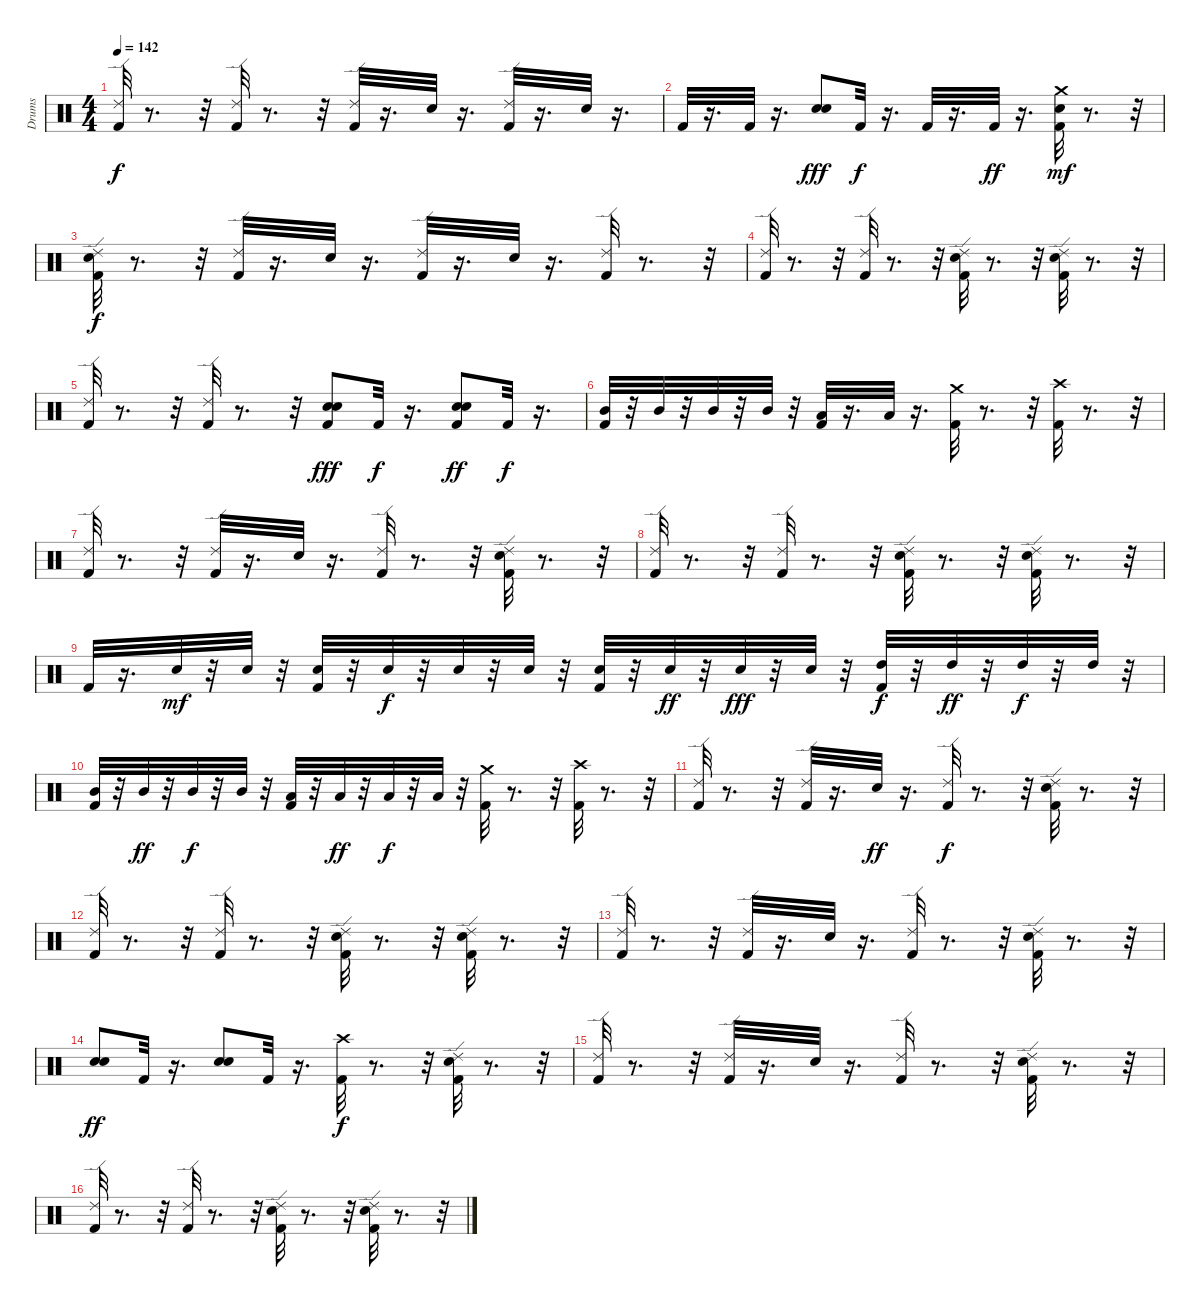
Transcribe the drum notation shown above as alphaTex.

\track ("Drums" "Drums") {instrument percussion}
\staff {score}
\articulation defaults
\ts (4 4)
\tempo 142
\clef neutral
\ks c
("Ride (edge) 2" "Kick (hit) 2").32{dy f} r.8{d} r.32 ("Ride (edge) 2" "Kick (hit) 2").32 r.8{d} r.32 ("Ride (edge) 2" "Kick (hit) 2").32 r.16{d} "Electric Snare (hit)".32 r.16{d} ("Ride (edge) 2" "Kick (hit) 2").32 r.16{d} "Electric Snare (hit)".32 r.16{d} |
"Kick (hit) 2".32 r.16{d} "Kick (hit) 2".32 r.16{d} ("Electric Snare (hit)" "Electric Snare (hit)").8{dy fff} "Kick (hit) 2".32{dy f} r.16{d} "Kick (hit) 2".32 r.16{d} "Kick (hit) 2".32{dy ff} r.16{d} ("Electric Snare (hit)" "Crash medium (hit)" "Kick (hit) 2").32{dy mf} r.8{d} r.32 |
("Ride (edge) 2" "Electric Snare (hit)" "Kick (hit) 2").32{dy f} r.8{d} r.32 ("Ride (edge) 2" "Kick (hit) 2").32 r.16{d} "Electric Snare (hit)".32 r.16{d} ("Ride (edge) 2" "Kick (hit) 2").32 r.16{d} "Electric Snare (hit)".32 r.16{d} ("Ride (edge) 2" "Kick (hit) 2").32 r.8{d} r.32 |
("Ride (edge) 2" "Kick (hit) 2").32 r.8{d} r.32 ("Ride (edge) 2" "Kick (hit) 2").32 r.8{d} r.32 ("Electric Snare (hit)" "Ride (edge) 2" "Kick (hit) 2").32 r.8{d} r.32 ("Electric Snare (hit)" "Ride (edge) 2" "Kick (hit) 2").32 r.8{d} r.32 |
("Ride (edge) 2" "Kick (hit) 2").32 r.8{d} r.32 ("Ride (edge) 2" "Kick (hit) 2").32 r.8{d} r.32 ("Electric Snare (hit)" "Electric Snare (hit)" "Kick (hit) 2").8{dy fff} "Kick (hit) 2".32{dy f} r.16{d} ("Electric Snare (hit)" "Electric Snare (hit)" "Kick (hit) 2").8{dy ff} "Kick (hit) 2".32{dy f} r.16{d} |
("Mid Tom (hit)" "Kick (hit) 2").32 r.32 "Mid Tom (hit)".32 r.32 "Mid Tom (hit)".32 r.32 "Mid Tom (hit)".32 r.32 ("Low Tom (hit)" "Kick (hit) 2").32 r.16{d} "Low Tom (hit)".32 r.16{d} ("Crash medium (hit)" "Kick (hit) 2").32 r.8{d} r.32 ("Crash high (hit)" "Kick (hit) 2").32 r.8{d} r.32 |
("Ride (edge) 2" "Kick (hit) 2").32 r.8{d} r.32 ("Ride (edge) 2" "Kick (hit) 2").32 r.16{d} "Electric Snare (hit)".32 r.16{d} ("Ride (edge) 2" "Kick (hit) 2").32 r.8{d} r.32 ("Ride (edge) 2" "Electric Snare (hit)" "Kick (hit) 2").32 r.8{d} r.32 |
("Ride (edge) 2" "Kick (hit) 2").32 r.8{d} r.32 ("Ride (edge) 2" "Kick (hit) 2").32 r.8{d} r.32 ("Ride (edge) 2" "Electric Snare (hit)" "Kick (hit) 2").32 r.8{d} r.32 ("Ride (edge) 2" "Electric Snare (hit)" "Kick (hit) 2").32 r.8{d} r.32 |
"Kick (hit) 2".32 r.16{d} "Electric Snare (hit)".32{dy mf} r.32 "Electric Snare (hit)".32 r.32 ("Electric Snare (hit)" "Kick (hit) 2").32 r.32 "Electric Snare (hit)".32{dy f} r.32 "Electric Snare (hit)".32 r.32 "Electric Snare (hit)".32 r.32 ("Electric Snare (hit)" "Kick (hit) 2").32 r.32 "Electric Snare (hit)".32{dy ff} r.32 "Electric Snare (hit)".32{dy fff} r.32 "Electric Snare (hit)".32 r.32 ("High Tom (hit)" "Kick (hit) 2").32{dy f} r.32 "High Tom (hit)".32{dy ff} r.32 "High Tom (hit)".32{dy f} r.32 "High Tom (hit)".32 r.32 |
("Mid Tom (hit)" "Kick (hit) 2").32 r.32 "Mid Tom (hit)".32{dy ff} r.32 "Mid Tom (hit)".32{dy f} r.32 "Mid Tom (hit)".32 r.32 ("Low Tom (hit)" "Kick (hit) 2").32 r.32 "Low Tom (hit)".32{dy ff} r.32 "Low Tom (hit)".32{dy f} r.32 "Low Tom (hit)".32 r.32 ("Crash medium (hit)" "Kick (hit) 2").32 r.8{d} r.32 ("Crash high (hit)" "Kick (hit) 2").32 r.8{d} r.32 |
("Ride (edge) 2" "Kick (hit) 2").32 r.8{d} r.32 ("Ride (edge) 2" "Kick (hit) 2").32 r.16{d} "Electric Snare (hit)".32{dy ff} r.16{d} ("Ride (edge) 2" "Kick (hit) 2").32{dy f} r.8{d} r.32 ("Electric Snare (hit)" "Ride (edge) 2" "Kick (hit) 2").32 r.8{d} r.32 |
("Ride (edge) 2" "Kick (hit) 2").32 r.8{d} r.32 ("Ride (edge) 2" "Kick (hit) 2").32 r.8{d} r.32 ("Electric Snare (hit)" "Ride (edge) 2" "Kick (hit) 2").32 r.8{d} r.32 ("Electric Snare (hit)" "Ride (edge) 2" "Kick (hit) 2").32 r.8{d} r.32 |
("Ride (edge) 2" "Kick (hit) 2").32 r.8{d} r.32 ("Ride (edge) 2" "Kick (hit) 2").32 r.16{d} "Electric Snare (hit)".32 r.16{d} ("Ride (edge) 2" "Kick (hit) 2").32 r.8{d} r.32 ("Electric Snare (hit)" "Ride (edge) 2" "Kick (hit) 2").32 r.8{d} r.32 |
("Electric Snare (hit)" "Electric Snare (hit)").8{dy ff} "Kick (hit) 2".32 r.16{d} ("Electric Snare (hit)" "Electric Snare (hit)").8 "Kick (hit) 2".32 r.16{d} ("Crash high (hit)" "Kick (hit) 2").32{dy f} r.8{d} r.32 ("Ride (edge) 2" "Electric Snare (hit)" "Kick (hit) 2").32 r.8{d} r.32 |
("Ride (edge) 2" "Kick (hit) 2").32 r.8{d} r.32 ("Ride (edge) 2" "Kick (hit) 2").32 r.16{d} "Electric Snare (hit)".32 r.16{d} ("Ride (edge) 2" "Kick (hit) 2").32 r.8{d} r.32 ("Ride (edge) 2" "Electric Snare (hit)" "Kick (hit) 2").32 r.8{d} r.32 |
("Ride (edge) 2" "Kick (hit) 2").32 r.8{d} r.32 ("Ride (edge) 2" "Kick (hit) 2").32 r.8{d} r.32 ("Ride (edge) 2" "Electric Snare (hit)" "Kick (hit) 2").32 r.8{d} r.32 ("Ride (edge) 2" "Electric Snare (hit)" "Kick (hit) 2").32 r.8{d} r.32
